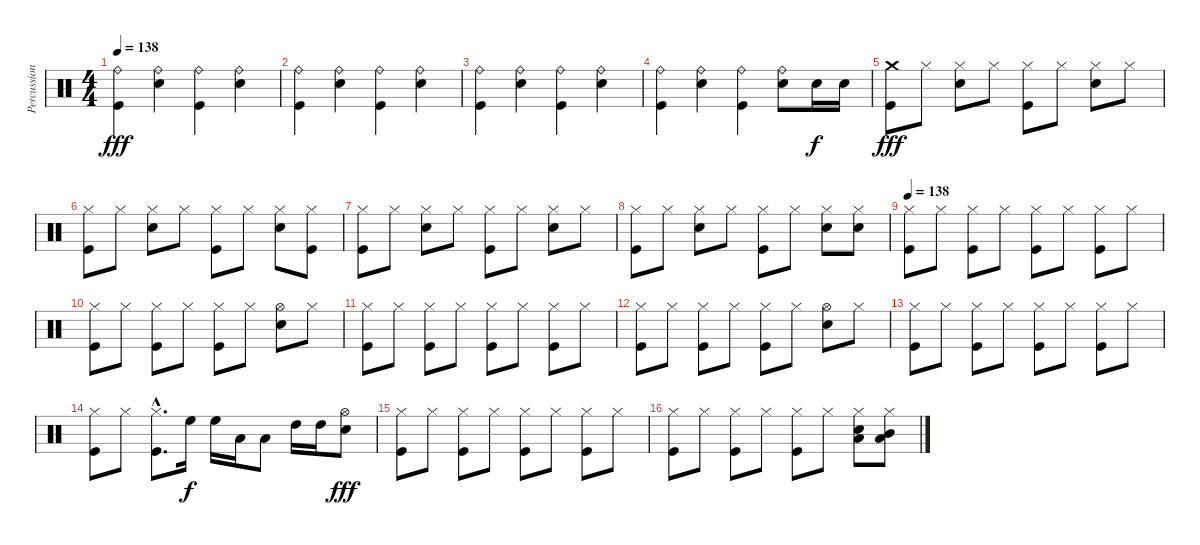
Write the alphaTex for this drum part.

\track ("Percussions" "Percussion") {instrument percussion}
\staff {score}
\articulation defaults
\ts (4 4)
\tempo 138
\clef neutral
\ks c
("Ride (bell)" "Kick (hit)").4{dy fff} ("Ride (bell)" "Snare (hit) 2").4 ("Ride (bell)" "Kick (hit)").4 ("Ride (bell)" "Snare (hit) 2").4 |
("Ride (bell)" "Kick (hit)").4 ("Ride (bell)" "Snare (hit) 2").4 ("Ride (bell)" "Kick (hit)").4 ("Ride (bell)" "Snare (hit) 2").4 |
("Ride (bell)" "Kick (hit)").4 ("Ride (bell)" "Snare (hit) 2").4 ("Ride (bell)" "Kick (hit)").4 ("Ride (bell)" "Snare (hit) 2").4 |
("Ride (bell)" "Kick (hit)").4 ("Ride (bell)" "Snare (hit) 2").4 ("Ride (bell)" "Kick (hit)").4 ("Ride (bell)" "Snare (hit) 2").8 "Snare (hit) 2".16{dy f} "Snare (hit) 2".16 |
("Crash medium (hit)" "Kick (hit)").8{dy fff} "Hi-Hat (closed)".8 ("Hi-Hat (closed)" "Snare (hit) 2").8 "Hi-Hat (closed)".8 ("Hi-Hat (closed)" "Kick (hit)").8 "Hi-Hat (closed)".8 ("Hi-Hat (closed)" "Snare (hit) 2").8 "Hi-Hat (closed)".8 |
("Hi-Hat (closed)" "Kick (hit)").8 "Hi-Hat (closed)".8 ("Hi-Hat (closed)" "Snare (hit) 2").8 "Hi-Hat (closed)".8 ("Hi-Hat (closed)" "Kick (hit)").8 "Hi-Hat (closed)".8 ("Hi-Hat (closed)" "Snare (hit) 2").8 ("Hi-Hat (closed)" "Kick (hit)").8 |
("Hi-Hat (closed)" "Kick (hit)").8 "Hi-Hat (closed)".8 ("Hi-Hat (closed)" "Snare (hit) 2").8 "Hi-Hat (closed)".8 ("Hi-Hat (closed)" "Kick (hit)").8 "Hi-Hat (closed)".8 ("Hi-Hat (closed)" "Snare (hit) 2").8 "Hi-Hat (closed)".8 |
("Hi-Hat (closed)" "Kick (hit)").8 "Hi-Hat (closed)".8 ("Hi-Hat (closed)" "Snare (hit) 2").8 "Hi-Hat (closed)".8 ("Hi-Hat (closed)" "Kick (hit)").8 "Hi-Hat (closed)".8 ("Hi-Hat (closed)" "Snare (hit) 2").8 ("Hi-Hat (closed)" "Snare (hit) 2").8 |
\tempo 138
("Hi-Hat (closed)" "Kick (hit)").8 "Hi-Hat (closed)".8 ("Hi-Hat (closed)" "Kick (hit)").8 "Hi-Hat (closed)".8 ("Hi-Hat (closed)" "Kick (hit)").8 "Hi-Hat (closed)".8 ("Hi-Hat (closed)" "Kick (hit)").8 "Hi-Hat (closed)".8 |
("Hi-Hat (closed)" "Kick (hit)").8 "Hi-Hat (closed)".8 ("Hi-Hat (closed)" "Kick (hit)").8 "Hi-Hat (closed)".8 ("Hi-Hat (closed)" "Kick (hit)").8 "Hi-Hat (closed)".8 ("Hi-Hat (open)" "Snare (hit) 2").8 "Hi-Hat (closed)".8 |
("Hi-Hat (closed)" "Kick (hit)").8 "Hi-Hat (closed)".8 ("Hi-Hat (closed)" "Kick (hit)").8 "Hi-Hat (closed)".8 ("Hi-Hat (closed)" "Kick (hit)").8 "Hi-Hat (closed)".8 ("Hi-Hat (closed)" "Kick (hit)").8 "Hi-Hat (closed)".8 |
("Hi-Hat (closed)" "Kick (hit)").8 "Hi-Hat (closed)".8 ("Hi-Hat (closed)" "Kick (hit)").8 "Hi-Hat (closed)".8 ("Hi-Hat (closed)" "Kick (hit)").8 "Hi-Hat (closed)".8 ("Hi-Hat (open)" "Snare (hit) 2").8 "Hi-Hat (closed)".8 |
("Hi-Hat (closed)" "Kick (hit)").8 "Hi-Hat (closed)".8 ("Hi-Hat (closed)" "Kick (hit)").8 "Hi-Hat (closed)".8 ("Hi-Hat (closed)" "Kick (hit)").8 "Hi-Hat (closed)".8 ("Hi-Hat (closed)" "Kick (hit)").8 "Hi-Hat (closed)".8 |
("Hi-Hat (closed)" "Kick (hit)").8 "Hi-Hat (closed)".8 ("Hi-Hat (closed)"{hac} "Kick (hit)"{hac}).8{d} "High Floor Tom (hit)".16{dy f} "High Floor Tom (hit)".16 "Low Tom (hit)".16 "Low Tom (hit)".8 "High Tom (hit)".16 "High Tom (hit)".16 ("Hi-Hat (open)" "Snare (hit) 2").8{dy fff} |
("Hi-Hat (closed)" "Kick (hit)").8 "Hi-Hat (closed)".8 ("Hi-Hat (closed)" "Kick (hit)").8 "Hi-Hat (closed)".8 ("Hi-Hat (closed)" "Kick (hit)").8 "Hi-Hat (closed)".8 ("Hi-Hat (closed)" "Kick (hit)").8 "Hi-Hat (closed)".8 |
("Hi-Hat (closed)" "Kick (hit)").8 "Hi-Hat (closed)".8 ("Hi-Hat (closed)" "Kick (hit)").8 "Hi-Hat (closed)".8 ("Hi-Hat (closed)" "Kick (hit)").8 "Hi-Hat (closed)".8 ("Hi-Hat (closed)" "Snare (hit) 2" "Low Floor Tom (hit)").8 ("Hi-Hat (closed)" "Mid Tom (hit)" "Low Tom (hit)").8
